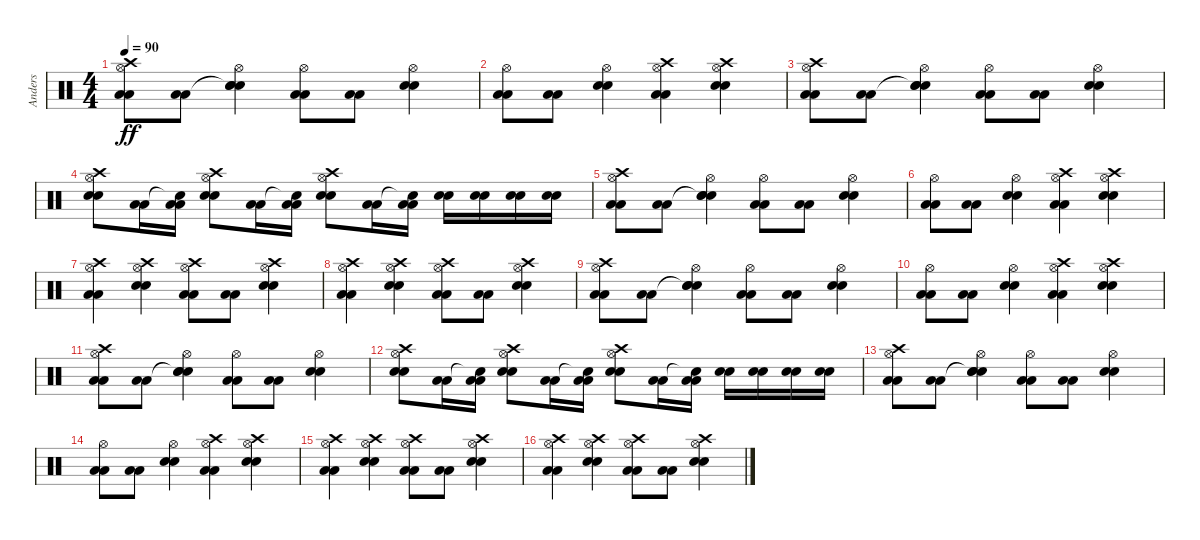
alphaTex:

\track ("Anders" "Anders") {instrument percussion}
\staff {score}
\articulation defaults
\ts (4 4)
\tempo 90
\clef neutral
\ks c
("Hi-Hat (open)" "Crash high (hit)" "Low Floor Tom (hit)" "Low Floor Tom (hit)").8{dy ff} ("Low Floor Tom (hit)" "Low Floor Tom (hit)").8 ("Hi-Hat (open)" "Snare (hit)"{t} "Electric Snare (hit)" "Electric Snare (hit)").4 ("Hi-Hat (open)" "Low Floor Tom (hit)" "Low Floor Tom (hit)").8 ("Low Floor Tom (hit)" "Low Floor Tom (hit)").8 ("Hi-Hat (open)" "Electric Snare (hit)" "Electric Snare (hit)").4 |
("Hi-Hat (open)" "Low Floor Tom (hit)" "Low Floor Tom (hit)").8 ("Low Floor Tom (hit)" "Low Floor Tom (hit)").8 ("Hi-Hat (open)" "Electric Snare (hit)" "Electric Snare (hit)").4 ("Hi-Hat (open)" "Crash high (hit)" "Low Floor Tom (hit)" "Low Floor Tom (hit)").4 ("Hi-Hat (open)" "Crash high (hit)" "Electric Snare (hit)" "Electric Snare (hit)").4 |
("Hi-Hat (open)" "Crash high (hit)" "Low Floor Tom (hit)" "Low Floor Tom (hit)").8 ("Low Floor Tom (hit)" "Low Floor Tom (hit)").8 ("Hi-Hat (open)" "Snare (hit)"{t} "Electric Snare (hit)" "Electric Snare (hit)").4 ("Hi-Hat (open)" "Low Floor Tom (hit)" "Low Floor Tom (hit)").8 ("Low Floor Tom (hit)" "Low Floor Tom (hit)").8 ("Hi-Hat (open)" "Electric Snare (hit)" "Electric Snare (hit)").4 |
("Hi-Hat (open)" "Crash high (hit)" "Electric Snare (hit)" "Electric Snare (hit)").8 ("Low Floor Tom (hit)" "Low Floor Tom (hit)").16 ("Snare (hit)"{t} "Low Floor Tom (hit)" "Low Floor Tom (hit)").16 ("Hi-Hat (open)" "Crash high (hit)" "Electric Snare (hit)" "Electric Snare (hit)").8 ("Low Floor Tom (hit)" "Low Floor Tom (hit)").16 ("Snare (hit)"{t} "Low Floor Tom (hit)" "Low Floor Tom (hit)").16 ("Hi-Hat (open)" "Crash high (hit)" "Electric Snare (hit)" "Electric Snare (hit)").8 ("Low Floor Tom (hit)" "Low Floor Tom (hit)").16 ("Snare (hit)"{t} "Low Floor Tom (hit)" "Low Floor Tom (hit)").16 ("Electric Snare (hit)" "Electric Snare (hit)").16 ("Electric Snare (hit)" "Electric Snare (hit)").16 ("Electric Snare (hit)" "Electric Snare (hit)").16 ("Electric Snare (hit)" "Electric Snare (hit)").16 |
("Hi-Hat (open)" "Crash high (hit)" "Low Floor Tom (hit)" "Low Floor Tom (hit)").8 ("Low Floor Tom (hit)" "Low Floor Tom (hit)").8 ("Hi-Hat (open)" "Snare (hit)"{t} "Electric Snare (hit)" "Electric Snare (hit)").4 ("Hi-Hat (open)" "Low Floor Tom (hit)" "Low Floor Tom (hit)").8 ("Low Floor Tom (hit)" "Low Floor Tom (hit)").8 ("Hi-Hat (open)" "Electric Snare (hit)" "Electric Snare (hit)").4 |
("Hi-Hat (open)" "Low Floor Tom (hit)" "Low Floor Tom (hit)").8 ("Low Floor Tom (hit)" "Low Floor Tom (hit)").8 ("Hi-Hat (open)" "Electric Snare (hit)" "Electric Snare (hit)").4 ("Hi-Hat (open)" "Crash high (hit)" "Low Floor Tom (hit)" "Low Floor Tom (hit)").4 ("Hi-Hat (open)" "Crash high (hit)" "Electric Snare (hit)" "Electric Snare (hit)").4 |
("Crash high (hit)" "Hi-Hat (open)" "Low Floor Tom (hit)" "Low Floor Tom (hit)").4 ("Crash high (hit)" "Hi-Hat (open)" "Electric Snare (hit)" "Electric Snare (hit)").4 ("Crash high (hit)" "Hi-Hat (open)" "Low Floor Tom (hit)" "Low Floor Tom (hit)").8 ("Low Floor Tom (hit)" "Low Floor Tom (hit)").8 ("Hi-Hat (open)" "Crash high (hit)" "Electric Snare (hit)" "Electric Snare (hit)").4 |
("Crash high (hit)" "Hi-Hat (open)" "Low Floor Tom (hit)" "Low Floor Tom (hit)").4 ("Crash high (hit)" "Hi-Hat (open)" "Electric Snare (hit)" "Electric Snare (hit)").4 ("Crash high (hit)" "Hi-Hat (open)" "Low Floor Tom (hit)" "Low Floor Tom (hit)").8 ("Low Floor Tom (hit)" "Low Floor Tom (hit)").8 ("Hi-Hat (open)" "Crash high (hit)" "Electric Snare (hit)" "Electric Snare (hit)").4 |
("Hi-Hat (open)" "Crash high (hit)" "Low Floor Tom (hit)" "Low Floor Tom (hit)").8 ("Low Floor Tom (hit)" "Low Floor Tom (hit)").8 ("Hi-Hat (open)" "Snare (hit)"{t} "Electric Snare (hit)" "Electric Snare (hit)").4 ("Hi-Hat (open)" "Low Floor Tom (hit)" "Low Floor Tom (hit)").8 ("Low Floor Tom (hit)" "Low Floor Tom (hit)").8 ("Hi-Hat (open)" "Electric Snare (hit)" "Electric Snare (hit)").4 |
("Hi-Hat (open)" "Low Floor Tom (hit)" "Low Floor Tom (hit)").8 ("Low Floor Tom (hit)" "Low Floor Tom (hit)").8 ("Hi-Hat (open)" "Electric Snare (hit)" "Electric Snare (hit)").4 ("Hi-Hat (open)" "Crash high (hit)" "Low Floor Tom (hit)" "Low Floor Tom (hit)").4 ("Hi-Hat (open)" "Crash high (hit)" "Electric Snare (hit)" "Electric Snare (hit)").4 |
("Hi-Hat (open)" "Crash high (hit)" "Low Floor Tom (hit)" "Low Floor Tom (hit)").8 ("Low Floor Tom (hit)" "Low Floor Tom (hit)").8 ("Hi-Hat (open)" "Snare (hit)"{t} "Electric Snare (hit)" "Electric Snare (hit)").4 ("Hi-Hat (open)" "Low Floor Tom (hit)" "Low Floor Tom (hit)").8 ("Low Floor Tom (hit)" "Low Floor Tom (hit)").8 ("Hi-Hat (open)" "Electric Snare (hit)" "Electric Snare (hit)").4 |
("Hi-Hat (open)" "Crash high (hit)" "Electric Snare (hit)" "Electric Snare (hit)").8 ("Low Floor Tom (hit)" "Low Floor Tom (hit)").16 ("Snare (hit)"{t} "Low Floor Tom (hit)" "Low Floor Tom (hit)").16 ("Hi-Hat (open)" "Crash high (hit)" "Electric Snare (hit)" "Electric Snare (hit)").8 ("Low Floor Tom (hit)" "Low Floor Tom (hit)").16 ("Snare (hit)"{t} "Low Floor Tom (hit)" "Low Floor Tom (hit)").16 ("Hi-Hat (open)" "Crash high (hit)" "Electric Snare (hit)" "Electric Snare (hit)").8 ("Low Floor Tom (hit)" "Low Floor Tom (hit)").16 ("Snare (hit)"{t} "Low Floor Tom (hit)" "Low Floor Tom (hit)").16 ("Electric Snare (hit)" "Electric Snare (hit)").16 ("Electric Snare (hit)" "Electric Snare (hit)").16 ("Electric Snare (hit)" "Electric Snare (hit)").16 ("Electric Snare (hit)" "Electric Snare (hit)").16 |
("Hi-Hat (open)" "Crash high (hit)" "Low Floor Tom (hit)" "Low Floor Tom (hit)").8 ("Low Floor Tom (hit)" "Low Floor Tom (hit)").8 ("Hi-Hat (open)" "Snare (hit)"{t} "Electric Snare (hit)" "Electric Snare (hit)").4 ("Hi-Hat (open)" "Low Floor Tom (hit)" "Low Floor Tom (hit)").8 ("Low Floor Tom (hit)" "Low Floor Tom (hit)").8 ("Hi-Hat (open)" "Electric Snare (hit)" "Electric Snare (hit)").4 |
("Hi-Hat (open)" "Low Floor Tom (hit)" "Low Floor Tom (hit)").8 ("Low Floor Tom (hit)" "Low Floor Tom (hit)").8 ("Hi-Hat (open)" "Electric Snare (hit)" "Electric Snare (hit)").4 ("Hi-Hat (open)" "Crash high (hit)" "Low Floor Tom (hit)" "Low Floor Tom (hit)").4 ("Hi-Hat (open)" "Crash high (hit)" "Electric Snare (hit)" "Electric Snare (hit)").4 |
("Crash high (hit)" "Hi-Hat (open)" "Low Floor Tom (hit)" "Low Floor Tom (hit)").4 ("Crash high (hit)" "Hi-Hat (open)" "Electric Snare (hit)" "Electric Snare (hit)").4 ("Crash high (hit)" "Hi-Hat (open)" "Low Floor Tom (hit)" "Low Floor Tom (hit)").8 ("Low Floor Tom (hit)" "Low Floor Tom (hit)").8 ("Hi-Hat (open)" "Crash high (hit)" "Electric Snare (hit)" "Electric Snare (hit)").4 |
("Crash high (hit)" "Hi-Hat (open)" "Low Floor Tom (hit)" "Low Floor Tom (hit)").4 ("Crash high (hit)" "Hi-Hat (open)" "Electric Snare (hit)" "Electric Snare (hit)").4 ("Crash high (hit)" "Hi-Hat (open)" "Low Floor Tom (hit)" "Low Floor Tom (hit)").8 ("Low Floor Tom (hit)" "Low Floor Tom (hit)").8 ("Hi-Hat (open)" "Crash high (hit)" "Electric Snare (hit)" "Electric Snare (hit)").4
